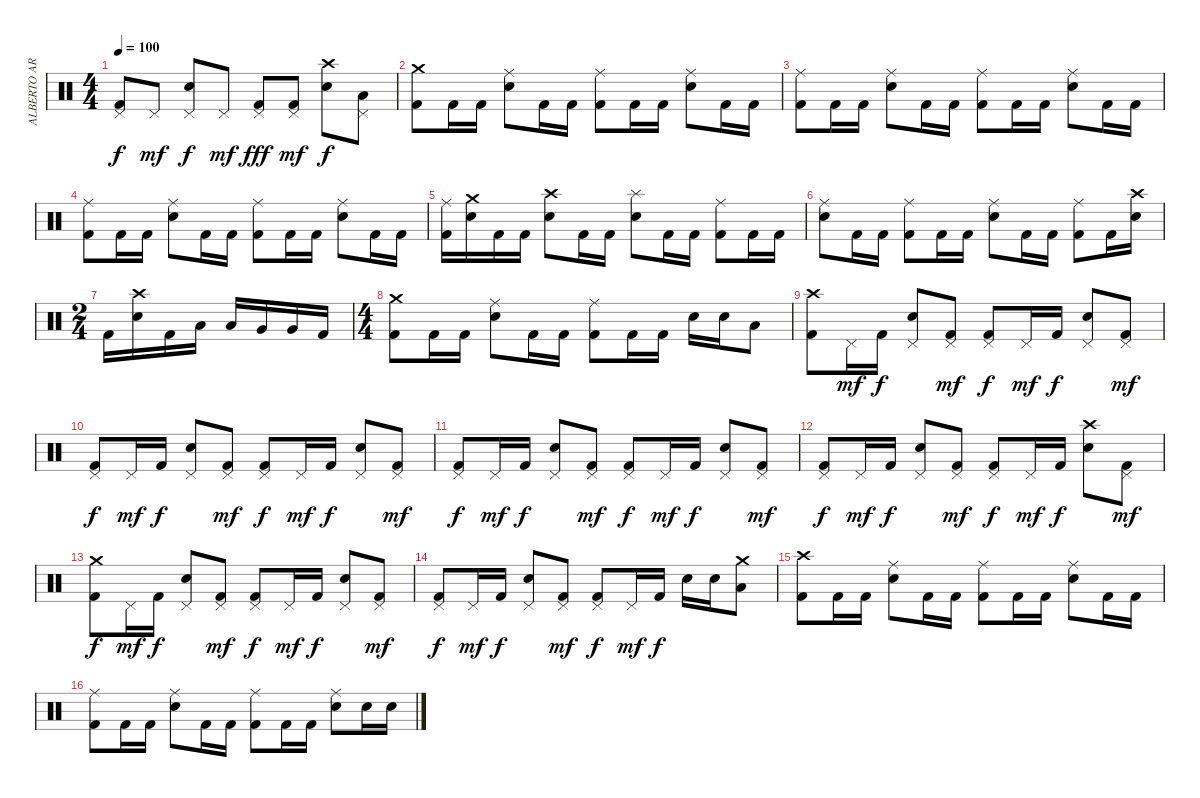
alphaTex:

\track ("ALBERTO ARDINES" "ALBERTO AR") {instrument percussion}
\staff {score}
\articulation defaults
\ts (4 4)
\tempo 100
\clef neutral
\ks c
("Pedal Hi-Hat (hit)" "Kick (hit) 2").8{dy f} "Pedal Hi-Hat (hit)".8{dy mf} ("Pedal Hi-Hat (hit)" "Electric Snare (hit)").8{dy f} "Pedal Hi-Hat (hit)".8{dy mf} ("Pedal Hi-Hat (hit)" "Kick (hit) 2").8{dy fff} ("Pedal Hi-Hat (hit)" "Kick (hit) 2").8{dy mf} ("Crash high (hit)" "Electric Snare (hit)").8{dy f} ("Pedal Hi-Hat (hit)" "Low Tom (hit)").8 |
("Crash medium (hit)" "Kick (hit) 2").8 "Kick (hit) 2".16 "Kick (hit) 2".16 ("Ride (middle)" "Electric Snare (hit)").8 "Kick (hit) 2".16 "Kick (hit) 2".16 ("Ride (middle)" "Kick (hit) 2").8 "Kick (hit) 2".16 "Kick (hit) 2".16 ("Ride (middle)" "Electric Snare (hit)").8 "Kick (hit) 2".16 "Kick (hit) 2".16 |
("Ride (middle)" "Kick (hit) 2").8 "Kick (hit) 2".16 "Kick (hit) 2".16 ("Ride (middle)" "Electric Snare (hit)").8 "Kick (hit) 2".16 "Kick (hit) 2".16 ("Ride (middle)" "Kick (hit) 2").8 "Kick (hit) 2".16 "Kick (hit) 2".16 ("Ride (middle)" "Electric Snare (hit)").8 "Kick (hit) 2".16 "Kick (hit) 2".16 |
("Ride (middle)" "Kick (hit) 2").8 "Kick (hit) 2".16 "Kick (hit) 2".16 ("Ride (middle)" "Electric Snare (hit)").8 "Kick (hit) 2".16 "Kick (hit) 2".16 ("Ride (middle)" "Kick (hit) 2").8 "Kick (hit) 2".16 "Kick (hit) 2".16 ("Ride (middle)" "Electric Snare (hit)").8 "Kick (hit) 2".16 "Kick (hit) 2".16 |
("Ride (middle)" "Kick (hit) 2").16 ("Crash medium (hit)" "Electric Snare (hit)").16 "Kick (hit) 2".16 "Kick (hit) 2".16 ("Crash high (hit)" "Electric Snare (hit)").8 "Kick (hit) 2".16 "Kick (hit) 2".16 ("Splash (hit)" "Electric Snare (hit)").8 "Kick (hit) 2".16 "Kick (hit) 2".16 ("Ride (middle)" "Kick (hit) 2").8 "Kick (hit) 2".16 "Kick (hit) 2".16 |
("Ride (middle)" "Electric Snare (hit)").8 "Kick (hit) 2".16 "Kick (hit) 2".16 ("Ride (middle)" "Kick (hit) 2").8 "Kick (hit) 2".16 "Kick (hit) 2".16 ("Ride (middle)" "Electric Snare (hit)").8 "Kick (hit) 2".16 "Kick (hit) 2".16 ("Ride (middle)" "Kick (hit) 2").8 "Kick (hit) 2".16 ("Crash high (hit)" "Electric Snare (hit)").16 |
\ts (2 4)
"Kick (hit) 2".16 ("Crash high (hit)" "Electric Snare (hit)").16 "Kick (hit) 2".16 "Low Tom (hit)".16 "Low Tom (hit)".16 "Very Low Tom (hit)".16 "Very Low Tom (hit)".16 "Kick (hit) 2".16 |
\ts (4 4)
("Crash medium (hit)" "Kick (hit) 2").8 "Kick (hit) 2".16 "Kick (hit) 2".16 ("Ride (middle)" "Electric Snare (hit)").8 "Kick (hit) 2".16 "Kick (hit) 2".16 ("Ride (middle)" "Kick (hit) 2").8 "Kick (hit) 2".16 "Kick (hit) 2".16 "Electric Snare (hit)".16 "Electric Snare (hit)".16 "Low Tom (hit)".8 |
("Crash high (hit)" "Kick (hit) 2").8 "Pedal Hi-Hat (hit)".16{dy mf} "Kick (hit) 2".16{dy f} ("Pedal Hi-Hat (hit)" "Electric Snare (hit)").8 ("Pedal Hi-Hat (hit)" "Kick (hit) 2").8{dy mf} ("Pedal Hi-Hat (hit)" "Kick (hit) 2").8{dy f} "Pedal Hi-Hat (hit)".16{dy mf} "Kick (hit) 2".16{dy f} ("Pedal Hi-Hat (hit)" "Electric Snare (hit)").8 ("Pedal Hi-Hat (hit)" "Kick (hit) 2").8{dy mf} |
("Pedal Hi-Hat (hit)" "Kick (hit) 2").8{dy f} "Pedal Hi-Hat (hit)".16{dy mf} "Kick (hit) 2".16{dy f} ("Pedal Hi-Hat (hit)" "Electric Snare (hit)").8 ("Pedal Hi-Hat (hit)" "Kick (hit) 2").8{dy mf} ("Pedal Hi-Hat (hit)" "Kick (hit) 2").8{dy f} "Pedal Hi-Hat (hit)".16{dy mf} "Kick (hit) 2".16{dy f} ("Pedal Hi-Hat (hit)" "Electric Snare (hit)").8 ("Pedal Hi-Hat (hit)" "Kick (hit) 2").8{dy mf} |
("Pedal Hi-Hat (hit)" "Kick (hit) 2").8{dy f} "Pedal Hi-Hat (hit)".16{dy mf} "Kick (hit) 2".16{dy f} ("Pedal Hi-Hat (hit)" "Electric Snare (hit)").8 ("Pedal Hi-Hat (hit)" "Kick (hit) 2").8{dy mf} ("Pedal Hi-Hat (hit)" "Kick (hit) 2").8{dy f} "Pedal Hi-Hat (hit)".16{dy mf} "Kick (hit) 2".16{dy f} ("Pedal Hi-Hat (hit)" "Electric Snare (hit)").8 ("Pedal Hi-Hat (hit)" "Kick (hit) 2").8{dy mf} |
("Pedal Hi-Hat (hit)" "Kick (hit) 2").8{dy f} "Pedal Hi-Hat (hit)".16{dy mf} "Kick (hit) 2".16{dy f} ("Pedal Hi-Hat (hit)" "Electric Snare (hit)").8 ("Pedal Hi-Hat (hit)" "Kick (hit) 2").8{dy mf} ("Pedal Hi-Hat (hit)" "Kick (hit) 2").8{dy f} "Pedal Hi-Hat (hit)".16{dy mf} "Kick (hit) 2".16{dy f} ("Crash high (hit)" "Electric Snare (hit)").8 ("Pedal Hi-Hat (hit)" "Kick (hit) 2").8{dy mf} |
("Crash medium (hit)" "Kick (hit) 2").8{dy f} "Pedal Hi-Hat (hit)".16{dy mf} "Kick (hit) 2".16{dy f} ("Pedal Hi-Hat (hit)" "Electric Snare (hit)").8 ("Pedal Hi-Hat (hit)" "Kick (hit) 2").8{dy mf} ("Pedal Hi-Hat (hit)" "Kick (hit) 2").8{dy f} "Pedal Hi-Hat (hit)".16{dy mf} "Kick (hit) 2".16{dy f} ("Pedal Hi-Hat (hit)" "Electric Snare (hit)").8 ("Pedal Hi-Hat (hit)" "Kick (hit) 2").8{dy mf} |
("Pedal Hi-Hat (hit)" "Kick (hit) 2").8{dy f} "Pedal Hi-Hat (hit)".16{dy mf} "Kick (hit) 2".16{dy f} ("Pedal Hi-Hat (hit)" "Electric Snare (hit)").8 ("Pedal Hi-Hat (hit)" "Kick (hit) 2").8{dy mf} ("Pedal Hi-Hat (hit)" "Kick (hit) 2").8{dy f} "Pedal Hi-Hat (hit)".16{dy mf} "Kick (hit) 2".16{dy f} "Electric Snare (hit)".16 "Electric Snare (hit)".16 ("Crash medium (hit)" "Low Tom (hit)").8 |
("Crash high (hit)" "Kick (hit) 2").8 "Kick (hit) 2".16 "Kick (hit) 2".16 ("Ride (middle)" "Electric Snare (hit)").8 "Kick (hit) 2".16 "Kick (hit) 2".16 ("Ride (middle)" "Kick (hit) 2").8 "Kick (hit) 2".16 "Kick (hit) 2".16 ("Ride (middle)" "Electric Snare (hit)").8 "Kick (hit) 2".16 "Kick (hit) 2".16 |
("Ride (middle)" "Kick (hit) 2").8 "Kick (hit) 2".16 "Kick (hit) 2".16 ("Ride (middle)" "Electric Snare (hit)").8 "Kick (hit) 2".16 "Kick (hit) 2".16 ("Ride (middle)" "Kick (hit) 2").8 "Kick (hit) 2".16 "Kick (hit) 2".16 ("Ride (middle)" "Electric Snare (hit)").8 "Electric Snare (hit)".16 "Electric Snare (hit)".16
